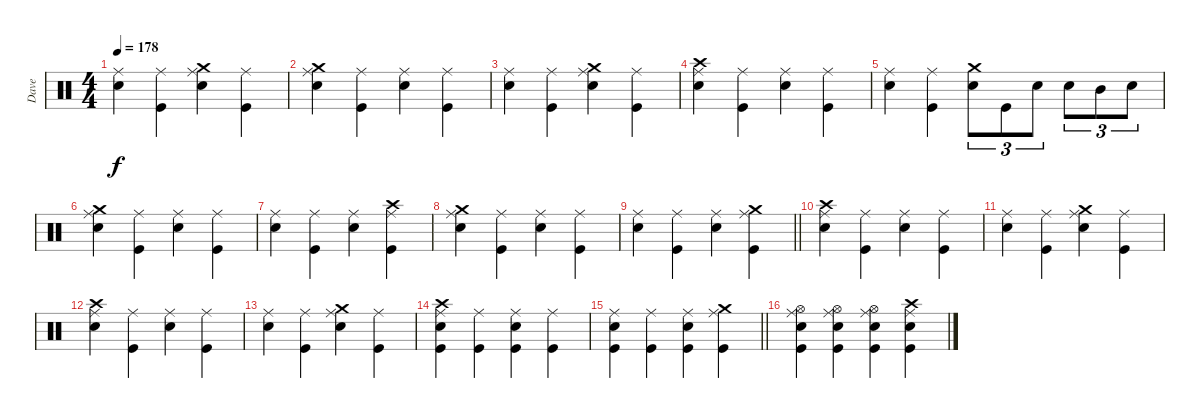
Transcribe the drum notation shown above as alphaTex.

\track ("Dave" "Dave") {instrument percussion}
\staff {score}
\articulation defaults
\ts (4 4)
\tempo 178
\clef neutral
\ks c
("Ride (middle)" "Snare (hit) 2").4{dy f} ("Ride (middle)" "Kick (hit)").4 ("Crash medium (hit)" "Ride (middle)" "Snare (hit) 2").4 ("Ride (middle)" "Kick (hit)").4 |
("Crash medium (hit)" "Ride (middle)" "Snare (hit) 2").4 ("Ride (middle)" "Kick (hit)").4 ("Ride (middle)" "Snare (hit) 2").4 ("Ride (middle)" "Kick (hit)").4 |
("Ride (middle)" "Snare (hit) 2").4 ("Ride (middle)" "Kick (hit)").4 ("Crash medium (hit)" "Ride (middle)" "Snare (hit) 2").4 ("Ride (middle)" "Kick (hit)").4 |
("Crash high (hit)" "Ride (middle)" "Snare (hit) 2").4 ("Ride (middle)" "Kick (hit)").4 ("Ride (middle)" "Snare (hit) 2").4 ("Ride (middle)" "Kick (hit)").4 |
("Ride (middle)" "Snare (hit) 2").4 ("Ride (middle)" "Kick (hit)").4 ("Crash medium (hit)" "Snare (hit) 2").8{tu (3 2)} "Kick (hit)".8{tu (3 2)} "Snare (hit) 2".8{tu (3 2)} "Snare (hit) 2".8{tu (3 2)} "Mid Tom (hit)".8{tu (3 2)} "Snare (hit) 2".8{tu (3 2)} |
("Crash medium (hit)" "Ride (middle)" "Snare (hit) 2").4 ("Ride (middle)" "Kick (hit)").4 ("Ride (middle)" "Snare (hit) 2").4 ("Ride (middle)" "Kick (hit)").4 |
("Ride (middle)" "Snare (hit) 2").4 ("Ride (middle)" "Kick (hit)").4 ("Ride (middle)" "Snare (hit) 2").4 ("Crash high (hit)" "Ride (middle)" "Kick (hit)").4 |
("Crash medium (hit)" "Ride (middle)" "Snare (hit) 2").4 ("Ride (middle)" "Kick (hit)").4 ("Ride (middle)" "Snare (hit) 2").4 ("Ride (middle)" "Kick (hit)").4 |
\barLineRight lightlight
("Ride (middle)" "Snare (hit) 2").4 ("Ride (middle)" "Kick (hit)").4 ("Ride (middle)" "Snare (hit) 2").4 ("Crash medium (hit)" "Ride (middle)" "Kick (hit)").4 |
("Crash high (hit)" "Ride (middle)" "Snare (hit) 2").4 ("Ride (middle)" "Kick (hit)").4 ("Ride (middle)" "Snare (hit) 2").4 ("Ride (middle)" "Kick (hit)").4 |
("Ride (middle)" "Snare (hit) 2").4 ("Ride (middle)" "Kick (hit)").4 ("Crash medium (hit)" "Ride (middle)" "Snare (hit) 2").4 ("Ride (middle)" "Kick (hit)").4 |
("Crash high (hit)" "Ride (middle)" "Snare (hit) 2").4 ("Ride (middle)" "Kick (hit)").4 ("Ride (middle)" "Snare (hit) 2").4 ("Ride (middle)" "Kick (hit)").4 |
("Ride (middle)" "Snare (hit) 2").4 ("Ride (middle)" "Kick (hit)").4 ("Crash medium (hit)" "Ride (middle)" "Snare (hit) 2").4 ("Ride (middle)" "Kick (hit)").4 |
("Crash high (hit)" "Ride (middle)" "Snare (hit) 2" "Kick (hit)").4 ("Ride (middle)" "Kick (hit)").4 ("Ride (middle)" "Snare (hit) 2" "Kick (hit)").4 ("Ride (middle)" "Kick (hit)").4 |
\barLineRight lightlight
("Ride (middle)" "Snare (hit) 2" "Kick (hit)").4 ("Ride (middle)" "Kick (hit)").4 ("Ride (middle)" "Snare (hit) 2" "Kick (hit)").4 ("Crash medium (hit)" "Ride (middle)" "Kick (hit)").4 |
("Hi-Hat (open)" "Ride (middle)" "Snare (hit) 2" "Kick (hit)").4 ("Hi-Hat (open)" "Ride (middle)" "Snare (hit) 2" "Kick (hit)").4 ("Hi-Hat (open)" "Ride (middle)" "Snare (hit) 2" "Kick (hit)").4 ("Crash high (hit)" "Ride (middle)" "Snare (hit) 2" "Kick (hit)").4
